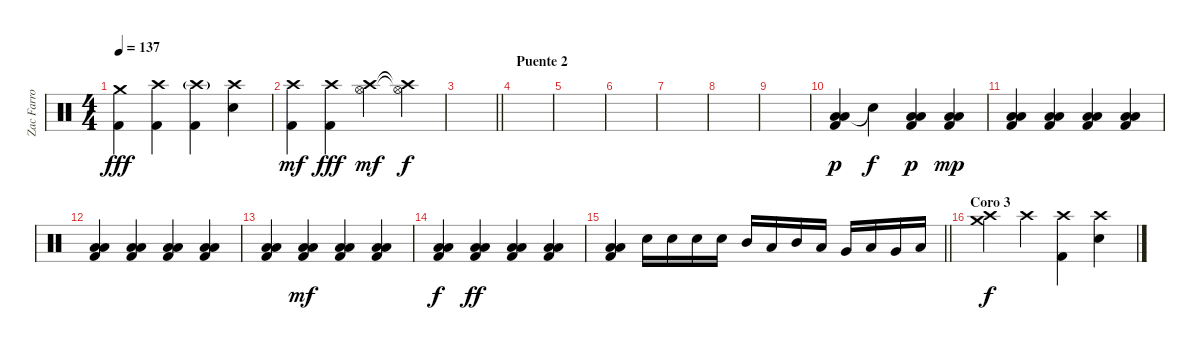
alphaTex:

\track ("Zac Farro" "Zac Farro") {instrument percussion}
\staff
\articulation defaults
\ts (4 4)
\tempo 137
\clef neutral
\ks c
("Crash medium (hit)" "Kick (hit) 2").4{dy fff} ("Crash high (hit)" "Kick (hit) 2").4 ("Crash high (hit)"{g} "Kick (hit) 2").4 ("Crash high (hit)" "Electric Snare (hit)").4 |
("Crash high (hit)" "Kick (hit) 2").4{dy mf} ("Crash high (hit)" "Kick (hit) 2").4{dy fff} ("Crash high (hit)" "Hi-Hat (open)").4{dy mf} ("Crash high (hit)"{t} "Hi-Hat (open)"{t}).4{dy f} |
\barLineRight lightlight
|
\section ("" "Puente 2")
|
|
|
|
|
|
("Low Floor Tom (hit)" "Low Tom (hit)" "Kick (hit) 2").4{dy p} "Snare (hit)"{t}.4{dy f} ("Low Floor Tom (hit)" "Low Tom (hit)" "Kick (hit) 2").4{dy p} ("Low Floor Tom (hit)" "Low Tom (hit)" "Kick (hit) 2").4{dy mp} |
("Low Floor Tom (hit)" "Low Tom (hit)" "Kick (hit) 2").4 ("Low Floor Tom (hit)" "Low Tom (hit)" "Kick (hit) 2").4 ("Low Floor Tom (hit)" "Low Tom (hit)" "Kick (hit) 2").4 ("Low Floor Tom (hit)" "Low Tom (hit)" "Kick (hit) 2").4 |
("Low Floor Tom (hit)" "Low Tom (hit)" "Kick (hit) 2").4 ("Low Floor Tom (hit)" "Low Tom (hit)" "Kick (hit) 2").4 ("Low Floor Tom (hit)" "Low Tom (hit)" "Kick (hit) 2").4 ("Low Floor Tom (hit)" "Low Tom (hit)" "Kick (hit) 2").4 |
("Low Floor Tom (hit)" "Low Tom (hit)" "Kick (hit) 2").4 ("Low Floor Tom (hit)" "Low Tom (hit)" "Kick (hit) 2").4{dy mf} ("Low Floor Tom (hit)" "Low Tom (hit)" "Kick (hit) 2").4 ("Low Floor Tom (hit)" "Low Tom (hit)" "Kick (hit) 2").4 |
("Low Floor Tom (hit)" "Low Tom (hit)" "Kick (hit) 2").4{dy f} ("Low Floor Tom (hit)" "Low Tom (hit)" "Kick (hit) 2").4{dy ff} ("Low Floor Tom (hit)" "Low Tom (hit)" "Kick (hit) 2").4 ("Low Floor Tom (hit)" "Low Tom (hit)" "Kick (hit) 2").4 |
\barLineRight lightlight
("Low Floor Tom (hit)" "Low Tom (hit)" "Kick (hit) 2").4 "Electric Snare (hit)".16 "Electric Snare (hit)".16 "Electric Snare (hit)".16 "Electric Snare (hit)".16 "Mid Tom (hit)".16 "Low Tom (hit)".16 "Mid Tom (hit)".16 "Low Tom (hit)".16 "Very Low Tom (hit)".16 "Low Tom (hit)".16 "Very Low Tom (hit)".16 "Low Floor Tom (hit)".16 |
\section ("" "Coro 3")
("Crash high (hit)" "Crash medium (hit)").4{dy f} "Crash high (hit)".4 ("Crash high (hit)" "Kick (hit) 2").4 ("Crash high (hit)" "Electric Snare (hit)").4
